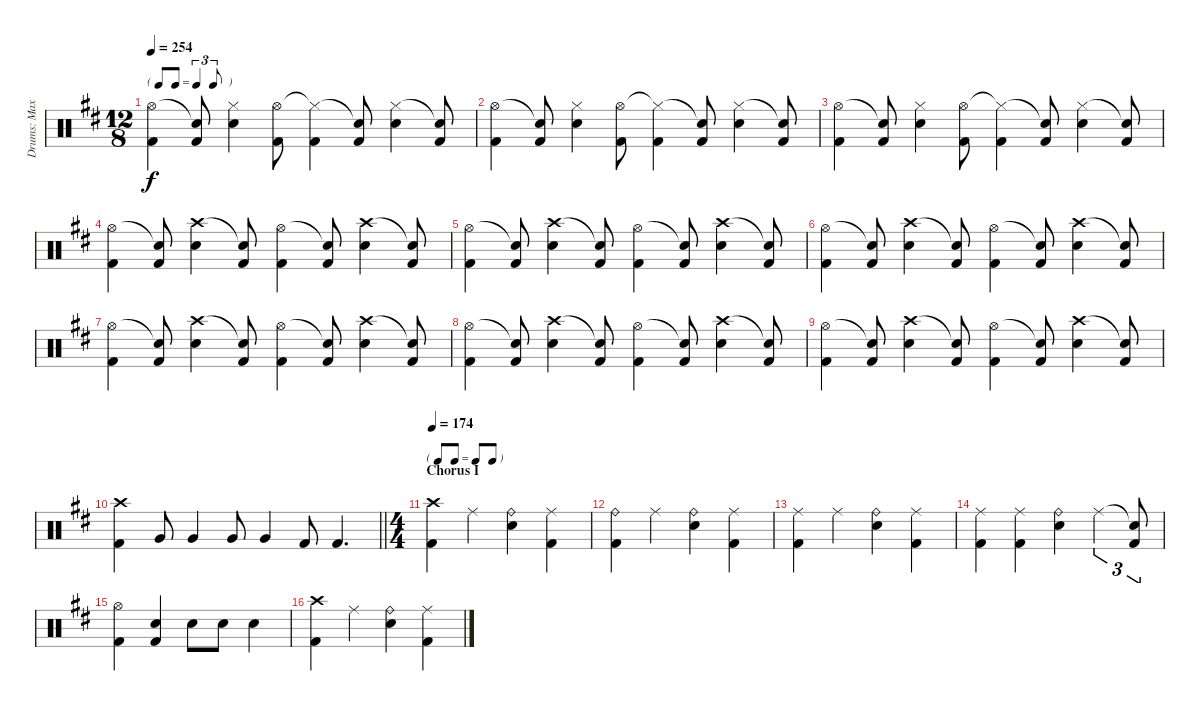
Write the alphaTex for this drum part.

\track ("Drums: Max" "Drums: Max") {instrument percussion}
\staff {score}
\articulation defaults
\ts (12 8)
\tf triplet8th
\tempo 254
\clef neutral
\ks d
("Hi-Hat (open)" "Kick (hit) 2").4{dy f} ("Snare (hit)"{t} "Kick (hit) 2").8 ("Hi-Hat (closed)" "Electric Snare (hit)").4 ("Hi-Hat (open)" "Kick (hit) 2").8 ("Hi-Hat (closed)"{t} "Kick (hit) 2").4 ("Snare (hit)"{t} "Kick (hit) 2").8 ("Hi-Hat (closed)" "Electric Snare (hit)").4 ("Snare (hit)"{t} "Kick (hit) 2").8 |
("Hi-Hat (open)" "Kick (hit) 2").4 ("Snare (hit)"{t} "Kick (hit) 2").8 ("Hi-Hat (closed)" "Electric Snare (hit)").4 ("Hi-Hat (open)" "Kick (hit) 2").8 ("Hi-Hat (closed)"{t} "Kick (hit) 2").4 ("Snare (hit)"{t} "Kick (hit) 2").8 ("Hi-Hat (closed)" "Electric Snare (hit)").4 ("Snare (hit)"{t} "Kick (hit) 2").8 |
("Hi-Hat (open)" "Kick (hit) 2").4 ("Snare (hit)"{t} "Kick (hit) 2").8 ("Hi-Hat (closed)" "Electric Snare (hit)").4 ("Hi-Hat (open)" "Kick (hit) 2").8 ("Hi-Hat (closed)"{t} "Kick (hit) 2").4 ("Snare (hit)"{t} "Kick (hit) 2").8 ("Hi-Hat (closed)" "Electric Snare (hit)").4 ("Snare (hit)"{t} "Kick (hit) 2").8 |
("Hi-Hat (open)" "Kick (hit) 2").4 ("Snare (hit)"{t} "Kick (hit) 2").8 ("Crash high (hit)" "Electric Snare (hit)").4 ("Snare (hit)"{t} "Kick (hit) 2").8 ("Hi-Hat (open)" "Kick (hit) 2").4 ("Snare (hit)"{t} "Kick (hit) 2").8 ("Crash high (hit)" "Electric Snare (hit)").4 ("Snare (hit)"{t} "Kick (hit) 2").8 |
("Hi-Hat (open)" "Kick (hit) 2").4 ("Snare (hit)"{t} "Kick (hit) 2").8 ("Crash high (hit)" "Electric Snare (hit)").4 ("Snare (hit)"{t} "Kick (hit) 2").8 ("Hi-Hat (open)" "Kick (hit) 2").4 ("Snare (hit)"{t} "Kick (hit) 2").8 ("Crash high (hit)" "Electric Snare (hit)").4 ("Snare (hit)"{t} "Kick (hit) 2").8 |
("Hi-Hat (open)" "Kick (hit) 2").4 ("Snare (hit)"{t} "Kick (hit) 2").8 ("Crash high (hit)" "Electric Snare (hit)").4 ("Snare (hit)"{t} "Kick (hit) 2").8 ("Hi-Hat (open)" "Kick (hit) 2").4 ("Snare (hit)"{t} "Kick (hit) 2").8 ("Crash high (hit)" "Electric Snare (hit)").4 ("Snare (hit)"{t} "Kick (hit) 2").8 |
("Hi-Hat (open)" "Kick (hit) 2").4 ("Snare (hit)"{t} "Kick (hit) 2").8 ("Crash high (hit)" "Electric Snare (hit)").4 ("Snare (hit)"{t} "Kick (hit) 2").8 ("Hi-Hat (open)" "Kick (hit) 2").4 ("Snare (hit)"{t} "Kick (hit) 2").8 ("Crash high (hit)" "Electric Snare (hit)").4 ("Snare (hit)"{t} "Kick (hit) 2").8 |
("Hi-Hat (open)" "Kick (hit) 2").4 ("Snare (hit)"{t} "Kick (hit) 2").8 ("Crash high (hit)" "Electric Snare (hit)").4 ("Snare (hit)"{t} "Kick (hit) 2").8 ("Hi-Hat (open)" "Kick (hit) 2").4 ("Snare (hit)"{t} "Kick (hit) 2").8 ("Crash high (hit)" "Electric Snare (hit)").4 ("Snare (hit)"{t} "Kick (hit) 2").8 |
("Hi-Hat (open)" "Kick (hit) 2").4 ("Snare (hit)"{t} "Kick (hit) 2").8 ("Crash high (hit)" "Electric Snare (hit)").4 ("Snare (hit)"{t} "Kick (hit) 2").8 ("Hi-Hat (open)" "Kick (hit) 2").4 ("Snare (hit)"{t} "Kick (hit) 2").8 ("Crash high (hit)" "Electric Snare (hit)").4 ("Snare (hit)"{t} "Kick (hit) 2").8 |
\barLineRight lightlight
("Crash high (hit)" "Kick (hit) 2").4 "Very Low Tom (hit)".8 "Very Low Tom (hit)".4 "Very Low Tom (hit)".8 "Very Low Tom (hit)".4 "Kick (hit) 2".8 "Kick (hit) 2".4{d} |
\ts (4 4)
\tf none
\section ("" "Chorus I")
\tempo 174
("Crash high (hit)" "Kick (hit) 2").4 "Ride (middle)".4 ("Ride (bell)" "Electric Snare (hit)").4 ("Ride (middle)" "Kick (hit) 2").4 |
("Ride (bell)" "Kick (hit) 2").4 "Ride (middle)".4 ("Ride (bell)" "Electric Snare (hit)").4 ("Ride (middle)" "Kick (hit) 2").4 |
("Ride (middle)" "Kick (hit) 2").4 "Ride (middle)".4 ("Ride (bell)" "Electric Snare (hit)").4 ("Ride (middle)" "Kick (hit) 2").4 |
("Ride (middle)" "Kick (hit) 2").4 ("Ride (middle)" "Kick (hit) 2").4 ("Ride (bell)" "Electric Snare (hit)").4 "Ride (middle)".4{tu (3 2)} ("Snare (hit)"{t} "Kick (hit) 2").8{tu (3 2)} |
("Hi-Hat (open)" "Kick (hit) 2").4 ("Electric Snare (hit)" "Kick (hit) 2").4 "Electric Snare (hit)".8 "Electric Snare (hit)".8 "Electric Snare (hit)".4 |
("Crash high (hit)" "Kick (hit) 2").4 "Ride (middle)".4 ("Ride (bell)" "Electric Snare (hit)").4 ("Ride (middle)" "Kick (hit) 2").4
